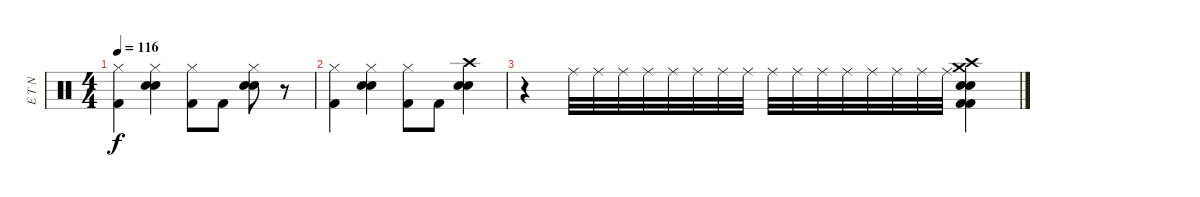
\track ("E T N" "E T N") {instrument percussion}
\staff {score}
\articulation defaults
\ts (4 4)
\tempo 116
\clef neutral
\ks c
("Hi-Hat (closed)" "Kick (hit) 2").4{dy f} ("Hi-Hat (closed)" "Electric Snare (hit)" "Electric Snare (hit)").4 ("Hi-Hat (closed)" "Kick (hit) 2").8 "Kick (hit) 2".8 ("Hi-Hat (closed)" "Electric Snare (hit)" "Electric Snare (hit)").8 r.8 |
("Hi-Hat (closed)" "Kick (hit) 2").4 ("Hi-Hat (closed)" "Electric Snare (hit)" "Electric Snare (hit)").4 ("Hi-Hat (closed)" "Kick (hit) 2").8 "Kick (hit) 2".8 ("Crash high (hit)" "Electric Snare (hit)" "Electric Snare (hit)").4 |
r.4 "Ride (middle)".32 "Ride (middle)".32 "Ride (middle)".32 "Ride (middle)".32 "Ride (middle)".32 "Ride (middle)".32 "Ride (middle)".32 "Ride (middle)".32 "Ride (middle)".32 "Ride (middle)".32 "Ride (middle)".32 "Ride (middle)".32 "Ride (middle)".32 "Ride (middle)".32 "Ride (middle)".32 "Ride (middle)".32 ("Crash high (hit)" "Crash medium (hit)" "Electric Snare (hit)" "Electric Snare (hit)" "Kick (hit) 2" "Kick (hit) 2").4
